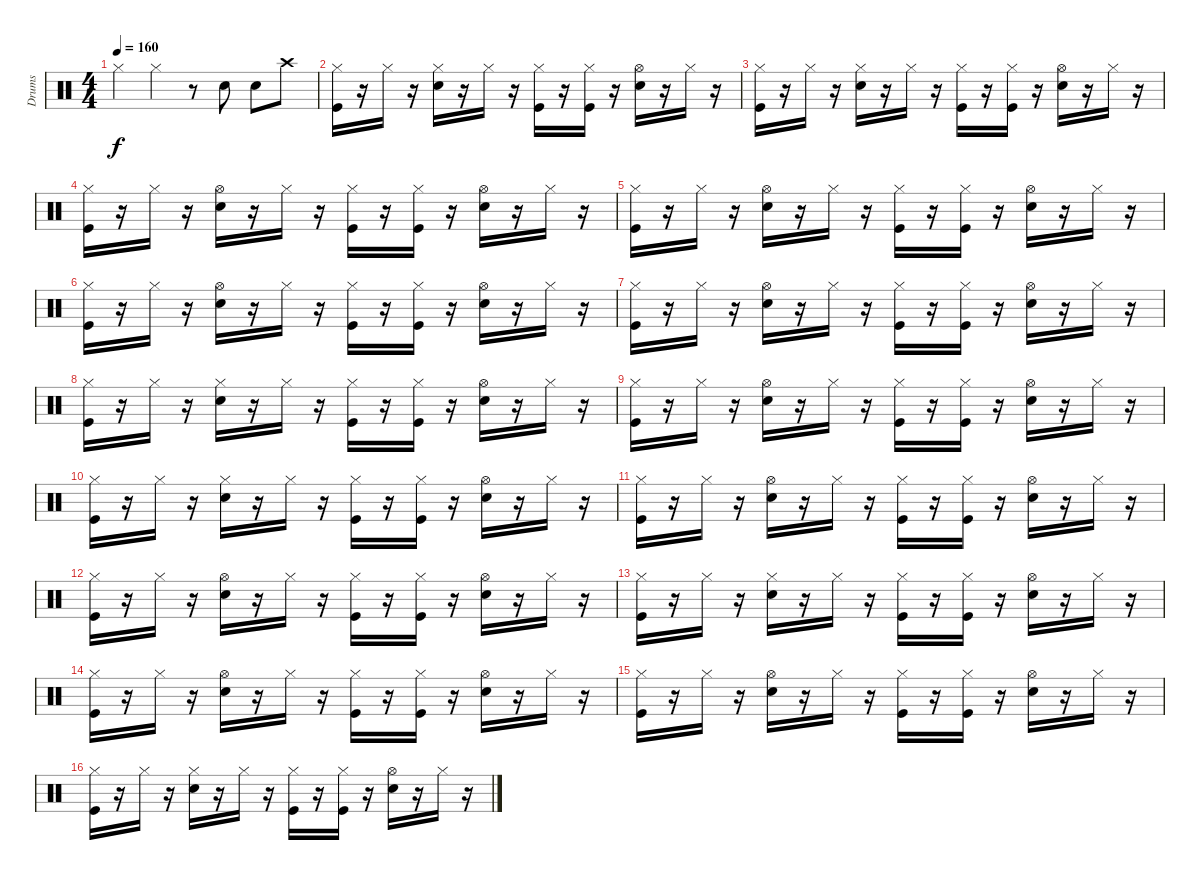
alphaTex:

\track ("Drums" "Drums") {instrument percussion}
\staff {score}
\articulation defaults
\ts (4 4)
\tempo 160
\clef neutral
\ks c "Hi-Hat (closed)".4{dy f} "Hi-Hat (closed)".4
r.8 "Snare (hit) 2".8 "Snare (hit) 2".8 "Crash high (hit)".8 |
("Hi-Hat (closed)" "Kick (hit)").16 r.16 "Hi-Hat (closed)".16 r.16 ("Hi-Hat (closed)" "Snare (hit) 2").16 r.16 "Hi-Hat (closed)".16 r.16 ("Hi-Hat (closed)" "Kick (hit)").16 r.16 ("Kick (hit)" "Hi-Hat (closed)").16 r.16 ("Hi-Hat (open)" "Snare (hit) 2").16 r.16 "Hi-Hat (closed)".16 r.16 |
("Hi-Hat (closed)" "Kick (hit)").16 r.16 "Hi-Hat (closed)".16 r.16 ("Hi-Hat (closed)" "Snare (hit) 2").16 r.16 "Hi-Hat (closed)".16 r.16 ("Hi-Hat (closed)" "Kick (hit)").16 r.16 ("Kick (hit)" "Hi-Hat (closed)").16 r.16 ("Hi-Hat (open)" "Snare (hit) 2").16 r.16 "Hi-Hat (closed)".16 r.16 |
("Hi-Hat (closed)" "Kick (hit)").16 r.16 "Hi-Hat (closed)".16 r.16 ("Hi-Hat (open)" "Snare (hit) 2").16 r.16 "Hi-Hat (closed)".16 r.16 ("Hi-Hat (closed)" "Kick (hit)").16 r.16 ("Kick (hit)" "Hi-Hat (closed)").16 r.16 ("Hi-Hat (open)" "Snare (hit) 2").16 r.16 "Hi-Hat (closed)".16 r.16 |
("Hi-Hat (closed)" "Kick (hit)").16 r.16 "Hi-Hat (closed)".16 r.16 ("Hi-Hat (open)" "Snare (hit) 2").16 r.16 "Hi-Hat (closed)".16 r.16 ("Hi-Hat (closed)" "Kick (hit)").16 r.16 ("Kick (hit)" "Hi-Hat (closed)").16 r.16 ("Hi-Hat (open)" "Snare (hit) 2").16 r.16 "Hi-Hat (closed)".16 r.16 |
("Hi-Hat (closed)" "Kick (hit)").16 r.16 "Hi-Hat (closed)".16 r.16 ("Hi-Hat (open)" "Snare (hit) 2").16 r.16 "Hi-Hat (closed)".16 r.16 ("Hi-Hat (closed)" "Kick (hit)").16 r.16 ("Kick (hit)" "Hi-Hat (closed)").16 r.16 ("Hi-Hat (open)" "Snare (hit) 2").16 r.16 "Hi-Hat (closed)".16 r.16 |
("Hi-Hat (closed)" "Kick (hit)").16 r.16 "Hi-Hat (closed)".16 r.16 ("Hi-Hat (open)" "Snare (hit) 2").16 r.16 "Hi-Hat (closed)".16 r.16 ("Hi-Hat (closed)" "Kick (hit)").16 r.16 ("Kick (hit)" "Hi-Hat (closed)").16 r.16 ("Hi-Hat (open)" "Snare (hit) 2").16 r.16 "Hi-Hat (closed)".16 r.16 |
("Hi-Hat (closed)" "Kick (hit)").16 r.16 "Hi-Hat (closed)".16 r.16 ("Hi-Hat (closed)" "Snare (hit) 2").16 r.16 "Hi-Hat (closed)".16 r.16 ("Hi-Hat (closed)" "Kick (hit)").16 r.16 ("Kick (hit)" "Hi-Hat (closed)").16 r.16 ("Hi-Hat (open)" "Snare (hit) 2").16 r.16 "Hi-Hat (closed)".16 r.16 |
("Hi-Hat (closed)" "Kick (hit)").16 r.16 "Hi-Hat (closed)".16 r.16 ("Hi-Hat (open)" "Snare (hit) 2").16 r.16 "Hi-Hat (closed)".16 r.16 ("Hi-Hat (closed)" "Kick (hit)").16 r.16 ("Kick (hit)" "Hi-Hat (closed)").16 r.16 ("Hi-Hat (open)" "Snare (hit) 2").16 r.16 "Hi-Hat (closed)".16 r.16 |
("Hi-Hat (closed)" "Kick (hit)").16 r.16 "Hi-Hat (closed)".16 r.16 ("Hi-Hat (closed)" "Snare (hit) 2").16 r.16 "Hi-Hat (closed)".16 r.16 ("Hi-Hat (closed)" "Kick (hit)").16 r.16 ("Kick (hit)" "Hi-Hat (closed)").16 r.16 ("Hi-Hat (open)" "Snare (hit) 2").16 r.16 "Hi-Hat (closed)".16 r.16 |
("Hi-Hat (closed)" "Kick (hit)").16 r.16 "Hi-Hat (closed)".16 r.16 ("Hi-Hat (open)" "Snare (hit) 2").16 r.16 "Hi-Hat (closed)".16 r.16 ("Hi-Hat (closed)" "Kick (hit)").16 r.16 ("Kick (hit)" "Hi-Hat (closed)").16 r.16 ("Hi-Hat (open)" "Snare (hit) 2").16 r.16 "Hi-Hat (closed)".16 r.16 |
("Hi-Hat (closed)" "Kick (hit)").16 r.16 "Hi-Hat (closed)".16 r.16 ("Hi-Hat (open)" "Snare (hit) 2").16 r.16 "Hi-Hat (closed)".16 r.16 ("Hi-Hat (closed)" "Kick (hit)").16 r.16 ("Kick (hit)" "Hi-Hat (closed)").16 r.16 ("Hi-Hat (open)" "Snare (hit) 2").16 r.16 "Hi-Hat (closed)".16 r.16 |
("Hi-Hat (closed)" "Kick (hit)").16 r.16 "Hi-Hat (closed)".16 r.16 ("Hi-Hat (closed)" "Snare (hit) 2").16 r.16 "Hi-Hat (closed)".16 r.16 ("Hi-Hat (closed)" "Kick (hit)").16 r.16 ("Kick (hit)" "Hi-Hat (closed)").16 r.16 ("Hi-Hat (open)" "Snare (hit) 2").16 r.16 "Hi-Hat (closed)".16 r.16 |
("Hi-Hat (closed)" "Kick (hit)").16 r.16 "Hi-Hat (closed)".16 r.16 ("Hi-Hat (open)" "Snare (hit) 2").16 r.16 "Hi-Hat (closed)".16 r.16 ("Hi-Hat (closed)" "Kick (hit)").16 r.16 ("Kick (hit)" "Hi-Hat (closed)").16 r.16 ("Hi-Hat (open)" "Snare (hit) 2").16 r.16 "Hi-Hat (closed)".16 r.16 |
("Hi-Hat (closed)" "Kick (hit)").16 r.16 "Hi-Hat (closed)".16 r.16 ("Hi-Hat (open)" "Snare (hit) 2").16 r.16 "Hi-Hat (closed)".16 r.16 ("Hi-Hat (closed)" "Kick (hit)").16 r.16 ("Kick (hit)" "Hi-Hat (closed)").16 r.16 ("Hi-Hat (open)" "Snare (hit) 2").16 r.16 "Hi-Hat (closed)".16 r.16 |
("Hi-Hat (closed)" "Kick (hit)").16 r.16 "Hi-Hat (closed)".16 r.16 ("Hi-Hat (closed)" "Snare (hit) 2").16 r.16 "Hi-Hat (closed)".16 r.16 ("Hi-Hat (closed)" "Kick (hit)").16 r.16 ("Kick (hit)" "Hi-Hat (closed)").16 r.16 ("Hi-Hat (open)" "Snare (hit) 2").16 r.16 "Hi-Hat (closed)".16 r.16
